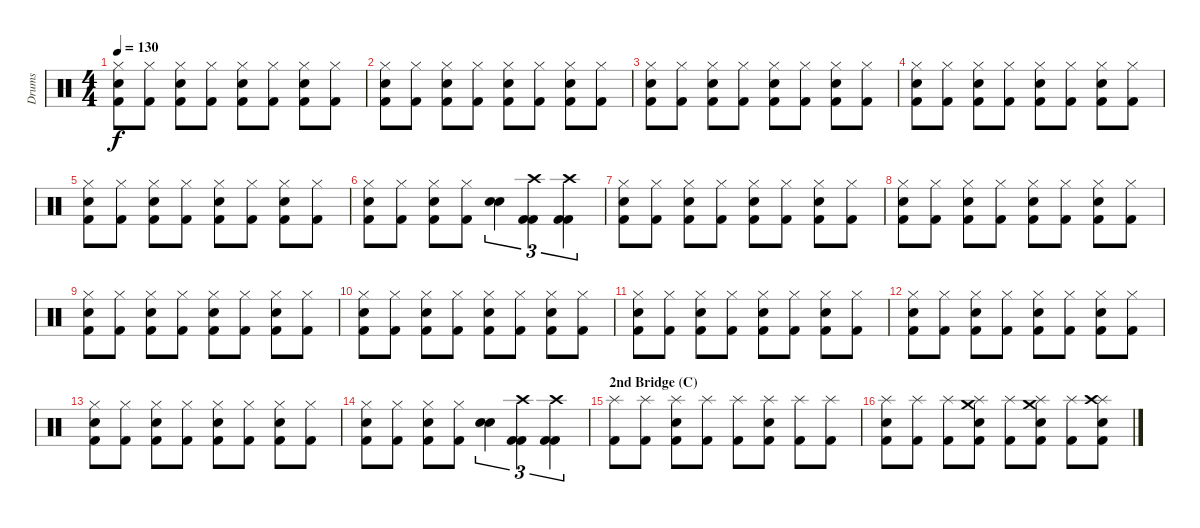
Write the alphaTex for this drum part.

\track ("Drums" "Drums") {instrument percussion}
\staff {score}
\articulation defaults
\ts (4 4)
\tempo 130
\clef neutral
\ks c
("Hi-Hat (closed)" "Kick (hit) 2" "Snare (hit) 2").8{dy f} ("Hi-Hat (closed)" "Kick (hit) 2").8 ("Hi-Hat (closed)" "Kick (hit) 2" "Snare (hit) 2").8 ("Hi-Hat (closed)" "Kick (hit) 2").8 ("Hi-Hat (closed)" "Kick (hit) 2" "Snare (hit) 2").8 ("Hi-Hat (closed)" "Kick (hit) 2").8 ("Hi-Hat (closed)" "Kick (hit) 2" "Snare (hit) 2").8 ("Hi-Hat (closed)" "Kick (hit) 2").8 |
("Hi-Hat (closed)" "Kick (hit) 2" "Snare (hit) 2").8 ("Hi-Hat (closed)" "Kick (hit) 2").8 ("Hi-Hat (closed)" "Kick (hit) 2" "Snare (hit) 2").8 ("Hi-Hat (closed)" "Kick (hit) 2").8 ("Hi-Hat (closed)" "Kick (hit) 2" "Snare (hit) 2").8 ("Hi-Hat (closed)" "Kick (hit) 2").8 ("Hi-Hat (closed)" "Kick (hit) 2" "Snare (hit) 2").8 ("Hi-Hat (closed)" "Kick (hit) 2").8 |
("Hi-Hat (closed)" "Kick (hit) 2" "Snare (hit) 2").8 ("Hi-Hat (closed)" "Kick (hit) 2").8 ("Hi-Hat (closed)" "Kick (hit) 2" "Snare (hit) 2").8 ("Hi-Hat (closed)" "Kick (hit) 2").8 ("Hi-Hat (closed)" "Kick (hit) 2" "Snare (hit) 2").8 ("Hi-Hat (closed)" "Kick (hit) 2").8 ("Hi-Hat (closed)" "Kick (hit) 2" "Snare (hit) 2").8 ("Hi-Hat (closed)" "Kick (hit) 2").8 |
("Hi-Hat (closed)" "Kick (hit) 2" "Snare (hit) 2").8 ("Hi-Hat (closed)" "Kick (hit) 2").8 ("Hi-Hat (closed)" "Kick (hit) 2" "Snare (hit) 2").8 ("Hi-Hat (closed)" "Kick (hit) 2").8 ("Hi-Hat (closed)" "Kick (hit) 2" "Snare (hit) 2").8 ("Hi-Hat (closed)" "Kick (hit) 2").8 ("Hi-Hat (closed)" "Kick (hit) 2" "Snare (hit) 2").8 ("Hi-Hat (closed)" "Kick (hit) 2").8 |
("Hi-Hat (closed)" "Kick (hit) 2" "Snare (hit) 2").8 ("Hi-Hat (closed)" "Kick (hit) 2").8 ("Hi-Hat (closed)" "Kick (hit) 2" "Snare (hit) 2").8 ("Hi-Hat (closed)" "Kick (hit) 2").8 ("Hi-Hat (closed)" "Kick (hit) 2" "Snare (hit) 2").8 ("Hi-Hat (closed)" "Kick (hit) 2").8 ("Hi-Hat (closed)" "Kick (hit) 2" "Snare (hit) 2").8 ("Hi-Hat (closed)" "Kick (hit) 2").8 |
("Hi-Hat (closed)" "Kick (hit) 2" "Snare (hit) 2").8 ("Hi-Hat (closed)" "Kick (hit) 2").8 ("Hi-Hat (closed)" "Kick (hit) 2" "Snare (hit) 2").8 ("Hi-Hat (closed)" "Kick (hit) 2").8 ("Snare (hit) 2" "Snare (hit) 2").4{tu (3 2)} ("Crash high (hit)" "Kick (hit) 2" "Kick (hit) 2").4{tu (3 2)} ("Crash high (hit)" "Kick (hit) 2" "Kick (hit) 2").4{tu (3 2)} |
("Hi-Hat (closed)" "Kick (hit) 2" "Snare (hit) 2").8 ("Hi-Hat (closed)" "Kick (hit) 2").8 ("Hi-Hat (closed)" "Kick (hit) 2" "Snare (hit) 2").8 ("Hi-Hat (closed)" "Kick (hit) 2").8 ("Hi-Hat (closed)" "Kick (hit) 2" "Snare (hit) 2").8 ("Hi-Hat (closed)" "Kick (hit) 2").8 ("Hi-Hat (closed)" "Kick (hit) 2" "Snare (hit) 2").8 ("Hi-Hat (closed)" "Kick (hit) 2").8 |
("Hi-Hat (closed)" "Kick (hit) 2" "Snare (hit) 2").8 ("Hi-Hat (closed)" "Kick (hit) 2").8 ("Hi-Hat (closed)" "Kick (hit) 2" "Snare (hit) 2").8 ("Hi-Hat (closed)" "Kick (hit) 2").8 ("Hi-Hat (closed)" "Kick (hit) 2" "Snare (hit) 2").8 ("Hi-Hat (closed)" "Kick (hit) 2").8 ("Hi-Hat (closed)" "Kick (hit) 2" "Snare (hit) 2").8 ("Hi-Hat (closed)" "Kick (hit) 2").8 |
("Hi-Hat (closed)" "Kick (hit) 2" "Snare (hit) 2").8 ("Hi-Hat (closed)" "Kick (hit) 2").8 ("Hi-Hat (closed)" "Kick (hit) 2" "Snare (hit) 2").8 ("Hi-Hat (closed)" "Kick (hit) 2").8 ("Hi-Hat (closed)" "Kick (hit) 2" "Snare (hit) 2").8 ("Hi-Hat (closed)" "Kick (hit) 2").8 ("Hi-Hat (closed)" "Kick (hit) 2" "Snare (hit) 2").8 ("Hi-Hat (closed)" "Kick (hit) 2").8 |
("Hi-Hat (closed)" "Kick (hit) 2" "Snare (hit) 2").8 ("Hi-Hat (closed)" "Kick (hit) 2").8 ("Hi-Hat (closed)" "Kick (hit) 2" "Snare (hit) 2").8 ("Hi-Hat (closed)" "Kick (hit) 2").8 ("Hi-Hat (closed)" "Kick (hit) 2" "Snare (hit) 2").8 ("Hi-Hat (closed)" "Kick (hit) 2").8 ("Hi-Hat (closed)" "Kick (hit) 2" "Snare (hit) 2").8 ("Hi-Hat (closed)" "Kick (hit) 2").8 |
("Hi-Hat (closed)" "Kick (hit) 2" "Snare (hit) 2").8 ("Hi-Hat (closed)" "Kick (hit) 2").8 ("Hi-Hat (closed)" "Kick (hit) 2" "Snare (hit) 2").8 ("Hi-Hat (closed)" "Kick (hit) 2").8 ("Hi-Hat (closed)" "Kick (hit) 2" "Snare (hit) 2").8 ("Hi-Hat (closed)" "Kick (hit) 2").8 ("Hi-Hat (closed)" "Kick (hit) 2" "Snare (hit) 2").8 ("Hi-Hat (closed)" "Kick (hit) 2").8 |
("Hi-Hat (closed)" "Kick (hit) 2" "Snare (hit) 2").8 ("Hi-Hat (closed)" "Kick (hit) 2").8 ("Hi-Hat (closed)" "Kick (hit) 2" "Snare (hit) 2").8 ("Hi-Hat (closed)" "Kick (hit) 2").8 ("Hi-Hat (closed)" "Kick (hit) 2" "Snare (hit) 2").8 ("Hi-Hat (closed)" "Kick (hit) 2").8 ("Hi-Hat (closed)" "Kick (hit) 2" "Snare (hit) 2").8 ("Hi-Hat (closed)" "Kick (hit) 2").8 |
("Hi-Hat (closed)" "Kick (hit) 2" "Snare (hit) 2").8 ("Hi-Hat (closed)" "Kick (hit) 2").8 ("Hi-Hat (closed)" "Kick (hit) 2" "Snare (hit) 2").8 ("Hi-Hat (closed)" "Kick (hit) 2").8 ("Hi-Hat (closed)" "Kick (hit) 2" "Snare (hit) 2").8 ("Hi-Hat (closed)" "Kick (hit) 2").8 ("Hi-Hat (closed)" "Kick (hit) 2" "Snare (hit) 2").8 ("Hi-Hat (closed)" "Kick (hit) 2").8 |
("Hi-Hat (closed)" "Kick (hit) 2" "Snare (hit) 2").8 ("Hi-Hat (closed)" "Kick (hit) 2").8 ("Hi-Hat (closed)" "Kick (hit) 2" "Snare (hit) 2").8 ("Hi-Hat (closed)" "Kick (hit) 2").8 ("Snare (hit) 2" "Snare (hit) 2").4{tu (3 2)} ("Crash high (hit)" "Kick (hit) 2" "Kick (hit) 2").4{tu (3 2)} ("Crash high (hit)" "Kick (hit) 2" "Kick (hit) 2").4{tu (3 2)} |
\section ("" "2nd Bridge (C)")
("Splash (hit)" "Kick (hit) 2").8 ("Splash (hit)" "Kick (hit) 2").8 ("Splash (hit)" "Kick (hit) 2" "Snare (hit) 2").8 ("Splash (hit)" "Kick (hit) 2").8 ("Splash (hit)" "Kick (hit) 2").8 ("Splash (hit)" "Kick (hit) 2" "Snare (hit) 2").8 ("Splash (hit)" "Kick (hit) 2").8 ("Splash (hit)" "Kick (hit) 2").8 |
("Splash (hit)" "Kick (hit) 2" "Snare (hit) 2").8 ("Splash (hit)" "Kick (hit) 2").8 ("Splash (hit)" "Kick (hit) 2").8 ("Splash (hit)" "Kick (hit) 2" "Snare (hit) 2" "Crash medium (hit)").8 ("Splash (hit)" "Kick (hit) 2").8 ("Splash (hit)" "Kick (hit) 2" "Snare (hit) 2" "Crash medium (hit)").8 ("Splash (hit)" "Kick (hit) 2").8 ("Splash (hit)" "Kick (hit) 2" "Snare (hit) 2" "Crash high (hit)").8
